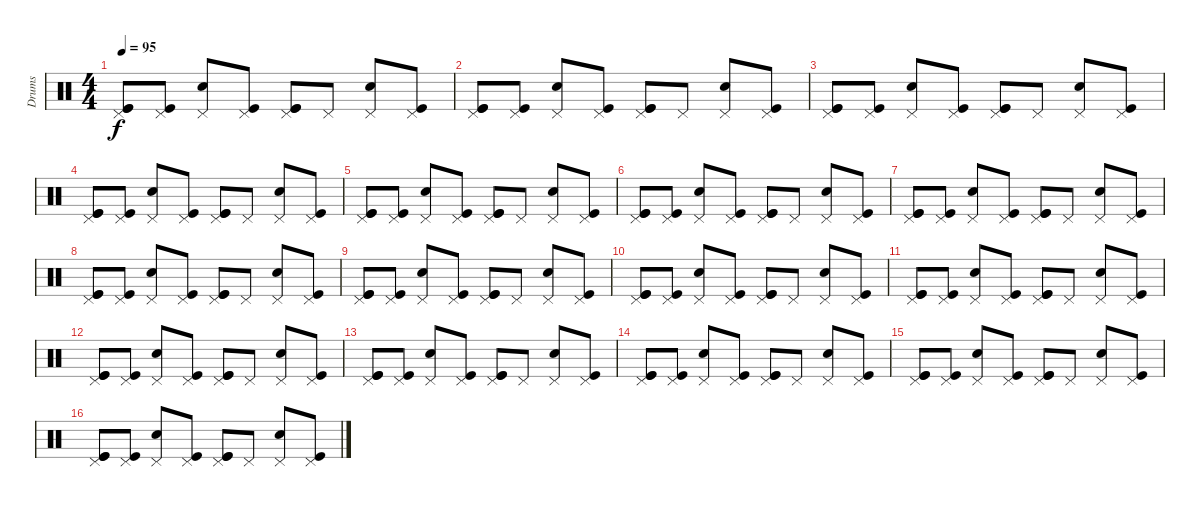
\track ("Drums" "Drums") {instrument percussion}
\staff {score}
\articulation defaults
\ts (4 4)
\tempo 95
\clef neutral
\ks c
("Pedal Hi-Hat (hit)" "Kick (hit)" "Kick (hit)").8{dy f} ("Pedal Hi-Hat (hit)" "Kick (hit)").8 ("Pedal Hi-Hat (hit)" "Snare (hit) 2").8 ("Pedal Hi-Hat (hit)" "Kick (hit)").8 ("Pedal Hi-Hat (hit)" "Kick (hit)" "Kick (hit)").8 "Pedal Hi-Hat (hit)".8 ("Pedal Hi-Hat (hit)" "Snare (hit) 2").8 ("Pedal Hi-Hat (hit)" "Kick (hit)").8 |
("Pedal Hi-Hat (hit)" "Kick (hit)" "Kick (hit)").8 ("Pedal Hi-Hat (hit)" "Kick (hit)").8 ("Pedal Hi-Hat (hit)" "Snare (hit) 2").8 ("Pedal Hi-Hat (hit)" "Kick (hit)").8 ("Pedal Hi-Hat (hit)" "Kick (hit)" "Kick (hit)").8 "Pedal Hi-Hat (hit)".8 ("Pedal Hi-Hat (hit)" "Snare (hit) 2").8 ("Pedal Hi-Hat (hit)" "Kick (hit)").8 |
("Pedal Hi-Hat (hit)" "Kick (hit)" "Kick (hit)").8 ("Pedal Hi-Hat (hit)" "Kick (hit)").8 ("Pedal Hi-Hat (hit)" "Snare (hit) 2").8 ("Pedal Hi-Hat (hit)" "Kick (hit)").8 ("Pedal Hi-Hat (hit)" "Kick (hit)" "Kick (hit)").8 "Pedal Hi-Hat (hit)".8 ("Pedal Hi-Hat (hit)" "Snare (hit) 2").8 ("Pedal Hi-Hat (hit)" "Kick (hit)").8 |
("Pedal Hi-Hat (hit)" "Kick (hit)" "Kick (hit)").8 ("Pedal Hi-Hat (hit)" "Kick (hit)").8 ("Pedal Hi-Hat (hit)" "Snare (hit) 2").8 ("Pedal Hi-Hat (hit)" "Kick (hit)").8 ("Pedal Hi-Hat (hit)" "Kick (hit)" "Kick (hit)").8 "Pedal Hi-Hat (hit)".8 ("Pedal Hi-Hat (hit)" "Snare (hit) 2").8 ("Pedal Hi-Hat (hit)" "Kick (hit)").8 |
("Pedal Hi-Hat (hit)" "Kick (hit)" "Kick (hit)").8 ("Pedal Hi-Hat (hit)" "Kick (hit)").8 ("Pedal Hi-Hat (hit)" "Snare (hit) 2").8 ("Pedal Hi-Hat (hit)" "Kick (hit)").8 ("Pedal Hi-Hat (hit)" "Kick (hit)" "Kick (hit)").8 "Pedal Hi-Hat (hit)".8 ("Pedal Hi-Hat (hit)" "Snare (hit) 2").8 ("Pedal Hi-Hat (hit)" "Kick (hit)").8 |
("Pedal Hi-Hat (hit)" "Kick (hit)" "Kick (hit)").8 ("Pedal Hi-Hat (hit)" "Kick (hit)").8 ("Pedal Hi-Hat (hit)" "Snare (hit) 2").8 ("Pedal Hi-Hat (hit)" "Kick (hit)").8 ("Pedal Hi-Hat (hit)" "Kick (hit)" "Kick (hit)").8 "Pedal Hi-Hat (hit)".8 ("Pedal Hi-Hat (hit)" "Snare (hit) 2").8 ("Pedal Hi-Hat (hit)" "Kick (hit)").8 |
("Pedal Hi-Hat (hit)" "Kick (hit)" "Kick (hit)").8 ("Pedal Hi-Hat (hit)" "Kick (hit)").8 ("Pedal Hi-Hat (hit)" "Snare (hit) 2").8 ("Pedal Hi-Hat (hit)" "Kick (hit)").8 ("Pedal Hi-Hat (hit)" "Kick (hit)" "Kick (hit)").8 "Pedal Hi-Hat (hit)".8 ("Pedal Hi-Hat (hit)" "Snare (hit) 2").8 ("Pedal Hi-Hat (hit)" "Kick (hit)").8 |
("Pedal Hi-Hat (hit)" "Kick (hit)" "Kick (hit)").8 ("Pedal Hi-Hat (hit)" "Kick (hit)").8 ("Pedal Hi-Hat (hit)" "Snare (hit) 2").8 ("Pedal Hi-Hat (hit)" "Kick (hit)").8 ("Pedal Hi-Hat (hit)" "Kick (hit)" "Kick (hit)").8 "Pedal Hi-Hat (hit)".8 ("Pedal Hi-Hat (hit)" "Snare (hit) 2").8 ("Pedal Hi-Hat (hit)" "Kick (hit)").8 |
("Pedal Hi-Hat (hit)" "Kick (hit)" "Kick (hit)").8 ("Pedal Hi-Hat (hit)" "Kick (hit)").8 ("Pedal Hi-Hat (hit)" "Snare (hit) 2").8 ("Pedal Hi-Hat (hit)" "Kick (hit)").8 ("Pedal Hi-Hat (hit)" "Kick (hit)" "Kick (hit)").8 "Pedal Hi-Hat (hit)".8 ("Pedal Hi-Hat (hit)" "Snare (hit) 2").8 ("Pedal Hi-Hat (hit)" "Kick (hit)").8 |
("Pedal Hi-Hat (hit)" "Kick (hit)" "Kick (hit)").8 ("Pedal Hi-Hat (hit)" "Kick (hit)").8 ("Pedal Hi-Hat (hit)" "Snare (hit) 2").8 ("Pedal Hi-Hat (hit)" "Kick (hit)").8 ("Pedal Hi-Hat (hit)" "Kick (hit)" "Kick (hit)").8 "Pedal Hi-Hat (hit)".8 ("Pedal Hi-Hat (hit)" "Snare (hit) 2").8 ("Pedal Hi-Hat (hit)" "Kick (hit)").8 |
("Pedal Hi-Hat (hit)" "Kick (hit)" "Kick (hit)").8 ("Pedal Hi-Hat (hit)" "Kick (hit)").8 ("Pedal Hi-Hat (hit)" "Snare (hit) 2").8 ("Pedal Hi-Hat (hit)" "Kick (hit)").8 ("Pedal Hi-Hat (hit)" "Kick (hit)" "Kick (hit)").8 "Pedal Hi-Hat (hit)".8 ("Pedal Hi-Hat (hit)" "Snare (hit) 2").8 ("Pedal Hi-Hat (hit)" "Kick (hit)").8 |
("Pedal Hi-Hat (hit)" "Kick (hit)" "Kick (hit)").8 ("Pedal Hi-Hat (hit)" "Kick (hit)").8 ("Pedal Hi-Hat (hit)" "Snare (hit) 2").8 ("Pedal Hi-Hat (hit)" "Kick (hit)").8 ("Pedal Hi-Hat (hit)" "Kick (hit)" "Kick (hit)").8 "Pedal Hi-Hat (hit)".8 ("Pedal Hi-Hat (hit)" "Snare (hit) 2").8 ("Pedal Hi-Hat (hit)" "Kick (hit)").8 |
("Pedal Hi-Hat (hit)" "Kick (hit)" "Kick (hit)").8 ("Pedal Hi-Hat (hit)" "Kick (hit)").8 ("Pedal Hi-Hat (hit)" "Snare (hit) 2").8 ("Pedal Hi-Hat (hit)" "Kick (hit)").8 ("Pedal Hi-Hat (hit)" "Kick (hit)" "Kick (hit)").8 "Pedal Hi-Hat (hit)".8 ("Pedal Hi-Hat (hit)" "Snare (hit) 2").8 ("Pedal Hi-Hat (hit)" "Kick (hit)").8 |
("Pedal Hi-Hat (hit)" "Kick (hit)" "Kick (hit)").8 ("Pedal Hi-Hat (hit)" "Kick (hit)").8 ("Pedal Hi-Hat (hit)" "Snare (hit) 2").8 ("Pedal Hi-Hat (hit)" "Kick (hit)").8 ("Pedal Hi-Hat (hit)" "Kick (hit)" "Kick (hit)").8 "Pedal Hi-Hat (hit)".8 ("Pedal Hi-Hat (hit)" "Snare (hit) 2").8 ("Pedal Hi-Hat (hit)" "Kick (hit)").8 |
("Pedal Hi-Hat (hit)" "Kick (hit)" "Kick (hit)").8 ("Pedal Hi-Hat (hit)" "Kick (hit)").8 ("Pedal Hi-Hat (hit)" "Snare (hit) 2").8 ("Pedal Hi-Hat (hit)" "Kick (hit)").8 ("Pedal Hi-Hat (hit)" "Kick (hit)" "Kick (hit)").8 "Pedal Hi-Hat (hit)".8 ("Pedal Hi-Hat (hit)" "Snare (hit) 2").8 ("Pedal Hi-Hat (hit)" "Kick (hit)").8 |
("Pedal Hi-Hat (hit)" "Kick (hit)" "Kick (hit)").8 ("Pedal Hi-Hat (hit)" "Kick (hit)").8 ("Pedal Hi-Hat (hit)" "Snare (hit) 2").8 ("Pedal Hi-Hat (hit)" "Kick (hit)").8 ("Pedal Hi-Hat (hit)" "Kick (hit)" "Kick (hit)").8 "Pedal Hi-Hat (hit)".8 ("Pedal Hi-Hat (hit)" "Snare (hit) 2").8 ("Pedal Hi-Hat (hit)" "Kick (hit)").8
